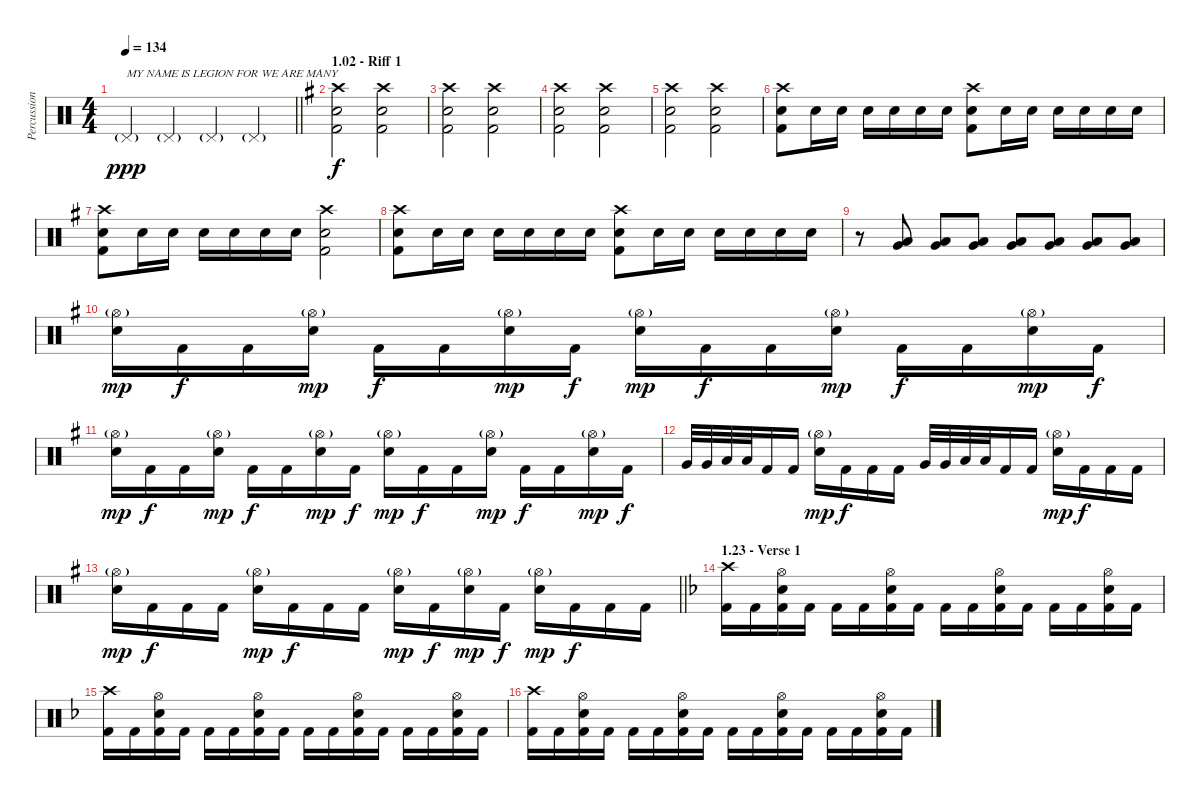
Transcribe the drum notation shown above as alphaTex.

\track ("Percussion" "Percussion") {instrument percussion}
\staff {score}
\articulation defaults
\ts (4 4)
\tempo 134
\clef neutral
\barLineRight lightlight
\ks c "Pedal Hi-Hat (hit)"{g}.4{txt "MY NAME IS LEGION FOR WE ARE MANY" dy ppp} "Pedal Hi-Hat (hit)"{g}.4 "Pedal Hi-Hat (hit)"{g}.4 "Pedal Hi-Hat (hit)"{g}.4
|
\section ("" "1.02 - Riff 1")
\ks eminor
("Crash high (hit)" "Electric Snare (hit)" "Kick (hit) 2").2{dy f} ("Crash high (hit)" "Electric Snare (hit)" "Kick (hit) 2").2 |
("Crash high (hit)" "Electric Snare (hit)" "Kick (hit) 2").2 ("Crash high (hit)" "Electric Snare (hit)" "Kick (hit) 2").2 |
("Crash high (hit)" "Electric Snare (hit)" "Kick (hit) 2").2 ("Crash high (hit)" "Electric Snare (hit)" "Kick (hit) 2").2 |
("Crash high (hit)" "Electric Snare (hit)" "Kick (hit) 2").2 ("Crash high (hit)" "Electric Snare (hit)" "Kick (hit) 2").2 |
("Crash high (hit)" "Electric Snare (hit)" "Kick (hit) 2").8 "Electric Snare (hit)".16 "Electric Snare (hit)".16 "Electric Snare (hit)".16 "Electric Snare (hit)".16 "Electric Snare (hit)".16 "Electric Snare (hit)".16 ("Crash high (hit)" "Electric Snare (hit)" "Kick (hit) 2").8 "Electric Snare (hit)".16 "Electric Snare (hit)".16 "Electric Snare (hit)".16 "Electric Snare (hit)".16 "Electric Snare (hit)".16 "Electric Snare (hit)".16 |
("Crash high (hit)" "Electric Snare (hit)" "Kick (hit) 2").8 "Electric Snare (hit)".16 "Electric Snare (hit)".16 "Electric Snare (hit)".16 "Electric Snare (hit)".16 "Electric Snare (hit)".16 "Electric Snare (hit)".16 ("Crash high (hit)" "Electric Snare (hit)" "Kick (hit) 2").2 |
("Crash high (hit)" "Electric Snare (hit)" "Kick (hit) 2").8 "Electric Snare (hit)".16 "Electric Snare (hit)".16 "Electric Snare (hit)".16 "Electric Snare (hit)".16 "Electric Snare (hit)".16 "Electric Snare (hit)".16 ("Crash high (hit)" "Electric Snare (hit)" "Kick (hit) 2").8 "Electric Snare (hit)".16 "Electric Snare (hit)".16 "Electric Snare (hit)".16 "Electric Snare (hit)".16 "Electric Snare (hit)".16 "Electric Snare (hit)".16 |
r.8 ("Very Low Tom (hit)" "Low Floor Tom (hit)").8 ("Very Low Tom (hit)" "Low Floor Tom (hit)").8 ("Very Low Tom (hit)" "Low Floor Tom (hit)").8 ("Very Low Tom (hit)" "Low Floor Tom (hit)").8 ("Very Low Tom (hit)" "Low Floor Tom (hit)").8 ("Very Low Tom (hit)" "Low Floor Tom (hit)").8 ("Very Low Tom (hit)" "Low Floor Tom (hit)").8 |
("Hi-Hat (open)"{g} "Electric Snare (hit)").16{dy mp} "Kick (hit) 2".16{dy f} "Kick (hit) 2".16 ("Hi-Hat (open)"{g} "Electric Snare (hit)").16{dy mp} "Kick (hit) 2".16{dy f} "Kick (hit) 2".16 ("Hi-Hat (open)"{g} "Electric Snare (hit)").16{dy mp} "Kick (hit) 2".16{dy f} ("Hi-Hat (open)"{g} "Electric Snare (hit)").16{dy mp} "Kick (hit) 2".16{dy f} "Kick (hit) 2".16 ("Hi-Hat (open)"{g} "Electric Snare (hit)").16{dy mp} "Kick (hit) 2".16{dy f} "Kick (hit) 2".16 ("Hi-Hat (open)"{g} "Electric Snare (hit)").16{dy mp} "Kick (hit) 2".16{dy f} |
("Hi-Hat (open)"{g} "Electric Snare (hit)").16{dy mp} "Kick (hit) 2".16{dy f} "Kick (hit) 2".16 ("Hi-Hat (open)"{g} "Electric Snare (hit)").16{dy mp} "Kick (hit) 2".16{dy f} "Kick (hit) 2".16 ("Hi-Hat (open)"{g} "Electric Snare (hit)").16{dy mp} "Kick (hit) 2".16{dy f} ("Hi-Hat (open)"{g} "Electric Snare (hit)").16{dy mp} "Kick (hit) 2".16{dy f} "Kick (hit) 2".16 ("Hi-Hat (open)"{g} "Electric Snare (hit)").16{dy mp} "Kick (hit) 2".16{dy f} "Kick (hit) 2".16 ("Hi-Hat (open)"{g} "Electric Snare (hit)").16{dy mp} "Kick (hit) 2".16{dy f} |
"Very Low Tom (hit)".32 "Very Low Tom (hit)".32 "Low Floor Tom (hit)".32 "Low Floor Tom (hit)".32 "Kick (hit) 2".16 "Kick (hit) 2".16 ("Hi-Hat (open)"{g} "Electric Snare (hit)").16{dy mp} "Kick (hit) 2".16{dy f} "Kick (hit) 2".16 "Kick (hit) 2".16 "Very Low Tom (hit)".32 "Very Low Tom (hit)".32 "Low Floor Tom (hit)".32 "Low Floor Tom (hit)".32 "Kick (hit) 2".16 "Kick (hit) 2".16 ("Hi-Hat (open)"{g} "Electric Snare (hit)").16{dy mp} "Kick (hit) 2".16{dy f} "Kick (hit) 2".16 "Kick (hit) 2".16 |
\barLineRight lightlight
("Hi-Hat (open)"{g} "Electric Snare (hit)").16{dy mp} "Kick (hit) 2".16{dy f} "Kick (hit) 2".16 "Kick (hit) 2".16 ("Hi-Hat (open)"{g} "Electric Snare (hit)").16{dy mp} "Kick (hit) 2".16{dy f} "Kick (hit) 2".16 "Kick (hit) 2".16 ("Hi-Hat (open)"{g} "Electric Snare (hit)").16{dy mp} "Kick (hit) 2".16{dy f} ("Hi-Hat (open)"{g} "Electric Snare (hit)").16{dy mp} "Kick (hit) 2".16{dy f} ("Hi-Hat (open)"{g} "Electric Snare (hit)").16{dy mp} "Kick (hit) 2".16{dy f} "Kick (hit) 2".16 "Kick (hit) 2".16 |
\section ("" "1.23 - Verse 1")
\ks dminor
("Crash high (hit)" "Kick (hit) 2").16 "Kick (hit) 2".16 ("Hi-Hat (open)" "Electric Snare (hit)" "Kick (hit) 2").16 "Kick (hit) 2".16 "Kick (hit) 2".16 "Kick (hit) 2".16 ("Hi-Hat (open)" "Electric Snare (hit)" "Kick (hit) 2").16 "Kick (hit) 2".16 "Kick (hit) 2".16 "Kick (hit) 2".16 ("Hi-Hat (open)" "Electric Snare (hit)" "Kick (hit) 2").16 "Kick (hit) 2".16 "Kick (hit) 2".16 "Kick (hit) 2".16 ("Hi-Hat (open)" "Electric Snare (hit)" "Kick (hit) 2").16 "Kick (hit) 2".16 |
("Crash high (hit)" "Kick (hit) 2").16 "Kick (hit) 2".16 ("Hi-Hat (open)" "Electric Snare (hit)" "Kick (hit) 2").16 "Kick (hit) 2".16 "Kick (hit) 2".16 "Kick (hit) 2".16 ("Hi-Hat (open)" "Electric Snare (hit)" "Kick (hit) 2").16 "Kick (hit) 2".16 "Kick (hit) 2".16 "Kick (hit) 2".16 ("Hi-Hat (open)" "Electric Snare (hit)" "Kick (hit) 2").16 "Kick (hit) 2".16 "Kick (hit) 2".16 "Kick (hit) 2".16 ("Hi-Hat (open)" "Electric Snare (hit)" "Kick (hit) 2").16 "Kick (hit) 2".16 |
("Crash high (hit)" "Kick (hit) 2").16 "Kick (hit) 2".16 ("Hi-Hat (open)" "Electric Snare (hit)" "Kick (hit) 2").16 "Kick (hit) 2".16 "Kick (hit) 2".16 "Kick (hit) 2".16 ("Hi-Hat (open)" "Electric Snare (hit)" "Kick (hit) 2").16 "Kick (hit) 2".16 "Kick (hit) 2".16 "Kick (hit) 2".16 ("Hi-Hat (open)" "Electric Snare (hit)" "Kick (hit) 2").16 "Kick (hit) 2".16 "Kick (hit) 2".16 "Kick (hit) 2".16 ("Hi-Hat (open)" "Electric Snare (hit)" "Kick (hit) 2").16 "Kick (hit) 2".16
